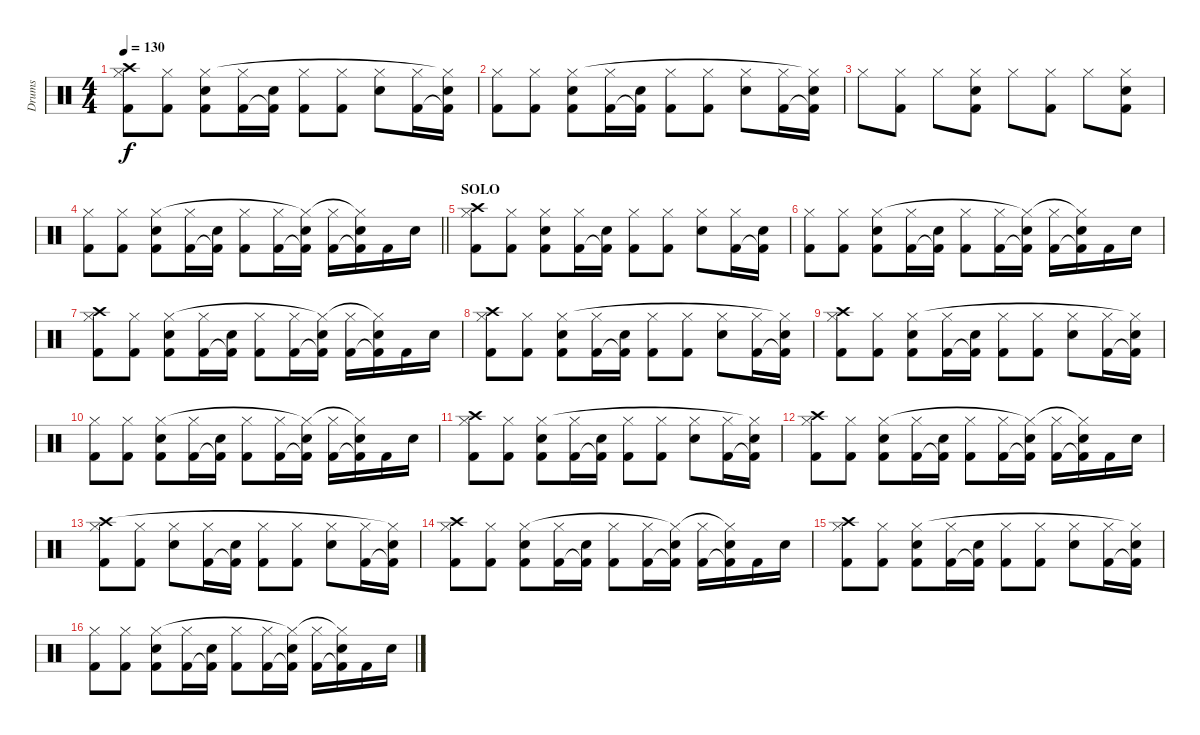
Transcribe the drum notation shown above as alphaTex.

\track ("Drums" "Drums") {instrument percussion}
\staff {score}
\articulation defaults
\ts (4 4)
\tempo 130
\clef neutral
\ks c
("Kick (hit) 2" "Hi-Hat (closed)" "Crash high (hit)").8{dy f} ("Kick (hit) 2" "Hi-Hat (closed)").8 ("Kick (hit) 2" "Electric Snare (hit)" "Hi-Hat (closed)").8 ("Kick (hit) 2" "Hi-Hat (closed)").16 ("Kick (hit) 2"{t} "Electric Snare (hit)").16 ("Kick (hit) 2" "Hi-Hat (closed)").8 ("Kick (hit) 2" "Hi-Hat (closed)").8 ("Electric Snare (hit)" "Hi-Hat (closed)").8 ("Kick (hit) 2" "Hi-Hat (closed)").16 ("Kick (hit) 2"{t} "Electric Snare (hit)" "Hi-Hat (closed)"{t}).16 |
("Kick (hit) 2" "Hi-Hat (closed)").8 ("Kick (hit) 2" "Hi-Hat (closed)").8 ("Kick (hit) 2" "Electric Snare (hit)" "Hi-Hat (closed)").8 ("Kick (hit) 2" "Hi-Hat (closed)").16 ("Kick (hit) 2"{t} "Electric Snare (hit)").16 ("Kick (hit) 2" "Hi-Hat (closed)").8 ("Kick (hit) 2" "Hi-Hat (closed)").8 ("Electric Snare (hit)" "Hi-Hat (closed)").8 ("Kick (hit) 2" "Hi-Hat (closed)").16 ("Kick (hit) 2"{t} "Electric Snare (hit)" "Hi-Hat (closed)"{t}).16 |
"Hi-Hat (closed)".8 ("Kick (hit) 2" "Hi-Hat (closed)").8 "Hi-Hat (closed)".8 ("Kick (hit) 2" "Electric Snare (hit)" "Hi-Hat (closed)").8 "Hi-Hat (closed)".8 ("Kick (hit) 2" "Hi-Hat (closed)").8 "Hi-Hat (closed)".8 ("Kick (hit) 2" "Electric Snare (hit)" "Hi-Hat (closed)").8 |
\barLineRight lightlight
("Kick (hit) 2" "Hi-Hat (closed)").8 ("Kick (hit) 2" "Hi-Hat (closed)").8 ("Kick (hit) 2" "Electric Snare (hit)" "Hi-Hat (closed)").8 ("Kick (hit) 2" "Hi-Hat (closed)").16 ("Kick (hit) 2"{t} "Electric Snare (hit)").16 ("Kick (hit) 2" "Hi-Hat (closed)").8 ("Kick (hit) 2" "Hi-Hat (closed)").16 ("Kick (hit) 2"{t} "Electric Snare (hit)" "Hi-Hat (closed)"{t}).16 ("Kick (hit) 2" "Hi-Hat (closed)").16 ("Kick (hit) 2"{t} "Electric Snare (hit)" "Hi-Hat (closed)"{t}).16 "Kick (hit) 2".16 "Electric Snare (hit)".16 |
\section ("" "SOLO")
("Kick (hit) 2" "Hi-Hat (closed)" "Crash high (hit)").8 ("Kick (hit) 2" "Hi-Hat (closed)").8 ("Kick (hit) 2" "Electric Snare (hit)" "Hi-Hat (closed)").8 ("Kick (hit) 2" "Hi-Hat (closed)").16 ("Kick (hit) 2"{t} "Electric Snare (hit)").16 ("Kick (hit) 2" "Hi-Hat (closed)").8 ("Kick (hit) 2" "Hi-Hat (closed)").8 ("Electric Snare (hit)" "Hi-Hat (closed)").8 ("Kick (hit) 2" "Hi-Hat (closed)").16 ("Kick (hit) 2"{t} "Electric Snare (hit)").16 |
("Kick (hit) 2" "Hi-Hat (closed)").8 ("Kick (hit) 2" "Hi-Hat (closed)").8 ("Kick (hit) 2" "Electric Snare (hit)" "Hi-Hat (closed)").8 ("Kick (hit) 2" "Hi-Hat (closed)").16 ("Kick (hit) 2"{t} "Electric Snare (hit)").16 ("Kick (hit) 2" "Hi-Hat (closed)").8 ("Kick (hit) 2" "Hi-Hat (closed)").16 ("Kick (hit) 2"{t} "Electric Snare (hit)" "Hi-Hat (closed)"{t}).16 ("Kick (hit) 2" "Hi-Hat (closed)").16 ("Kick (hit) 2"{t} "Electric Snare (hit)" "Hi-Hat (closed)"{t}).16 "Kick (hit) 2".16 "Electric Snare (hit)".16 |
("Kick (hit) 2" "Hi-Hat (closed)" "Crash high (hit)").8 ("Kick (hit) 2" "Hi-Hat (closed)").8 ("Kick (hit) 2" "Electric Snare (hit)" "Hi-Hat (closed)").8 ("Kick (hit) 2" "Hi-Hat (closed)").16 ("Kick (hit) 2"{t} "Electric Snare (hit)").16 ("Kick (hit) 2" "Hi-Hat (closed)").8 ("Kick (hit) 2" "Hi-Hat (closed)").16 ("Kick (hit) 2"{t} "Electric Snare (hit)" "Hi-Hat (closed)"{t}).16 ("Kick (hit) 2" "Hi-Hat (closed)").16 ("Kick (hit) 2"{t} "Electric Snare (hit)" "Hi-Hat (closed)"{t}).16 "Kick (hit) 2".16 "Electric Snare (hit)".16 |
("Kick (hit) 2" "Hi-Hat (closed)" "Crash high (hit)").8 ("Kick (hit) 2" "Hi-Hat (closed)").8 ("Kick (hit) 2" "Electric Snare (hit)" "Hi-Hat (closed)").8 ("Kick (hit) 2" "Hi-Hat (closed)").16 ("Kick (hit) 2"{t} "Electric Snare (hit)").16 ("Kick (hit) 2" "Hi-Hat (closed)").8 ("Kick (hit) 2" "Hi-Hat (closed)").8 ("Electric Snare (hit)" "Hi-Hat (closed)").8 ("Kick (hit) 2" "Hi-Hat (closed)").16 ("Kick (hit) 2"{t} "Electric Snare (hit)" "Hi-Hat (closed)"{t}).16 |
("Kick (hit) 2" "Hi-Hat (closed)" "Crash high (hit)").8 ("Kick (hit) 2" "Hi-Hat (closed)").8 ("Kick (hit) 2" "Electric Snare (hit)" "Hi-Hat (closed)").8 ("Kick (hit) 2" "Hi-Hat (closed)").16 ("Kick (hit) 2"{t} "Electric Snare (hit)").16 ("Kick (hit) 2" "Hi-Hat (closed)").8 ("Kick (hit) 2" "Hi-Hat (closed)").8 ("Electric Snare (hit)" "Hi-Hat (closed)").8 ("Kick (hit) 2" "Hi-Hat (closed)").16 ("Kick (hit) 2"{t} "Electric Snare (hit)" "Hi-Hat (closed)"{t}).16 |
("Kick (hit) 2" "Hi-Hat (closed)").8 ("Kick (hit) 2" "Hi-Hat (closed)").8 ("Kick (hit) 2" "Electric Snare (hit)" "Hi-Hat (closed)").8 ("Kick (hit) 2" "Hi-Hat (closed)").16 ("Kick (hit) 2"{t} "Electric Snare (hit)").16 ("Kick (hit) 2" "Hi-Hat (closed)").8 ("Kick (hit) 2" "Hi-Hat (closed)").16 ("Kick (hit) 2"{t} "Electric Snare (hit)" "Hi-Hat (closed)"{t}).16 ("Kick (hit) 2" "Hi-Hat (closed)").16 ("Kick (hit) 2"{t} "Electric Snare (hit)" "Hi-Hat (closed)"{t}).16 "Kick (hit) 2".16 "Electric Snare (hit)".16 |
("Kick (hit) 2" "Hi-Hat (closed)" "Crash high (hit)").8 ("Kick (hit) 2" "Hi-Hat (closed)").8 ("Kick (hit) 2" "Electric Snare (hit)" "Hi-Hat (closed)").8 ("Kick (hit) 2" "Hi-Hat (closed)").16 ("Kick (hit) 2"{t} "Electric Snare (hit)").16 ("Kick (hit) 2" "Hi-Hat (closed)").8 ("Kick (hit) 2" "Hi-Hat (closed)").8 ("Electric Snare (hit)" "Hi-Hat (closed)").8 ("Kick (hit) 2" "Hi-Hat (closed)").16 ("Kick (hit) 2"{t} "Electric Snare (hit)" "Hi-Hat (closed)"{t}).16 |
("Kick (hit) 2" "Hi-Hat (closed)" "Crash high (hit)").8 ("Kick (hit) 2" "Hi-Hat (closed)").8 ("Kick (hit) 2" "Electric Snare (hit)" "Hi-Hat (closed)").8 ("Kick (hit) 2" "Hi-Hat (closed)").16 ("Kick (hit) 2"{t} "Electric Snare (hit)").16 ("Kick (hit) 2" "Hi-Hat (closed)").8 ("Kick (hit) 2" "Hi-Hat (closed)").16 ("Kick (hit) 2"{t} "Electric Snare (hit)" "Hi-Hat (closed)"{t}).16 ("Kick (hit) 2" "Hi-Hat (closed)").16 ("Kick (hit) 2"{t} "Electric Snare (hit)" "Hi-Hat (closed)"{t}).16 "Kick (hit) 2".16 "Electric Snare (hit)".16 |
("Kick (hit) 2" "Hi-Hat (closed)" "Crash high (hit)").8 ("Kick (hit) 2" "Hi-Hat (closed)").8 ("Electric Snare (hit)" "Hi-Hat (closed)").8 ("Kick (hit) 2" "Hi-Hat (closed)").16 ("Kick (hit) 2"{t} "Electric Snare (hit)").16 ("Kick (hit) 2" "Hi-Hat (closed)").8 ("Kick (hit) 2" "Hi-Hat (closed)").8 ("Electric Snare (hit)" "Hi-Hat (closed)").8 ("Kick (hit) 2" "Hi-Hat (closed)").16 ("Kick (hit) 2"{t} "Electric Snare (hit)" "Hi-Hat (closed)"{t}).16 |
("Kick (hit) 2" "Hi-Hat (closed)" "Crash high (hit)").8 ("Kick (hit) 2" "Hi-Hat (closed)").8 ("Kick (hit) 2" "Electric Snare (hit)" "Hi-Hat (closed)").8 ("Kick (hit) 2" "Hi-Hat (closed)").16 ("Kick (hit) 2"{t} "Electric Snare (hit)").16 ("Kick (hit) 2" "Hi-Hat (closed)").8 ("Kick (hit) 2" "Hi-Hat (closed)").16 ("Kick (hit) 2"{t} "Electric Snare (hit)" "Hi-Hat (closed)"{t}).16 ("Kick (hit) 2" "Hi-Hat (closed)").16 ("Kick (hit) 2"{t} "Electric Snare (hit)" "Hi-Hat (closed)"{t}).16 "Kick (hit) 2".16 "Electric Snare (hit)".16 |
("Kick (hit) 2" "Hi-Hat (closed)" "Crash high (hit)").8 ("Kick (hit) 2" "Hi-Hat (closed)").8 ("Kick (hit) 2" "Electric Snare (hit)" "Hi-Hat (closed)").8 ("Kick (hit) 2" "Hi-Hat (closed)").16 ("Kick (hit) 2"{t} "Electric Snare (hit)").16 ("Kick (hit) 2" "Hi-Hat (closed)").8 ("Kick (hit) 2" "Hi-Hat (closed)").8 ("Electric Snare (hit)" "Hi-Hat (closed)").8 ("Kick (hit) 2" "Hi-Hat (closed)").16 ("Kick (hit) 2"{t} "Electric Snare (hit)" "Hi-Hat (closed)"{t}).16 |
("Kick (hit) 2" "Hi-Hat (closed)").8 ("Kick (hit) 2" "Hi-Hat (closed)").8 ("Kick (hit) 2" "Electric Snare (hit)" "Hi-Hat (closed)").8 ("Kick (hit) 2" "Hi-Hat (closed)").16 ("Kick (hit) 2"{t} "Electric Snare (hit)").16 ("Kick (hit) 2" "Hi-Hat (closed)").8 ("Kick (hit) 2" "Hi-Hat (closed)").16 ("Kick (hit) 2"{t} "Electric Snare (hit)" "Hi-Hat (closed)"{t}).16 ("Kick (hit) 2" "Hi-Hat (closed)").16 ("Kick (hit) 2"{t} "Electric Snare (hit)" "Hi-Hat (closed)"{t}).16 "Kick (hit) 2".16 "Electric Snare (hit)".16
